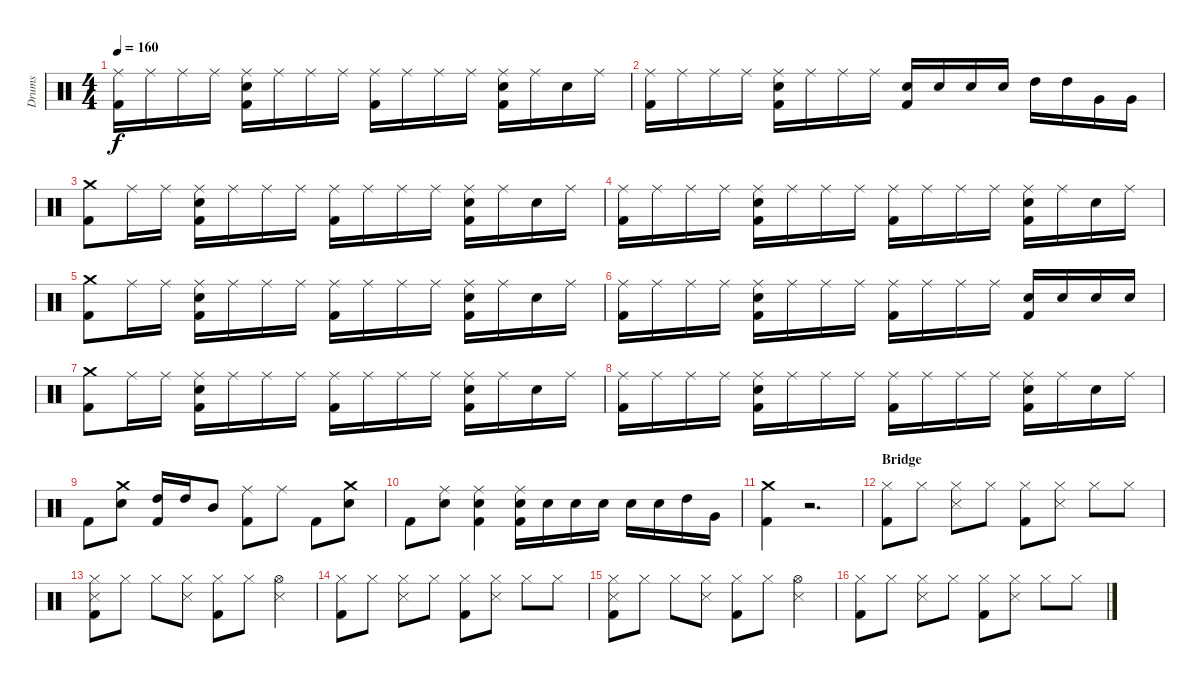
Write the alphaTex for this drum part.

\track ("Drums" "Drums") {instrument percussion}
\staff {score}
\articulation defaults
\ts (4 4)
\tempo 160
\clef neutral
\ks c
("Ride (middle)" "Kick (hit) 2").16{dy f} "Ride (middle)".16 "Ride (middle)".16 "Ride (middle)".16 ("Ride (middle)" "Snare (hit) 2" "Kick (hit) 2").16 "Ride (middle)".16 "Ride (middle)".16 "Ride (middle)".16 ("Ride (middle)" "Kick (hit) 2").16 "Ride (middle)".16 "Ride (middle)".16 "Ride (middle)".16 ("Ride (middle)" "Snare (hit) 2" "Kick (hit) 2").16 "Ride (middle)".16 "Snare (hit)".16 "Ride (middle)".16 |
("Ride (middle)" "Kick (hit) 2").16 "Ride (middle)".16 "Ride (middle)".16 "Ride (middle)".16 ("Ride (middle)" "Snare (hit) 2" "Kick (hit) 2").16 "Ride (middle)".16 "Ride (middle)".16 "Ride (middle)".16 ("Snare (hit) 2" "Kick (hit) 2").16 "Snare (hit) 2".16 "Snare (hit) 2".16 "Snare (hit) 2".16 "High Tom (hit)".16 "High Tom (hit)".16 "Very Low Tom (hit)".16 "Very Low Tom (hit)".16 |
("Crash medium (hit)" "Kick (hit) 2").8 "Ride (middle)".16 "Ride (middle)".16 ("Ride (middle)" "Snare (hit) 2" "Kick (hit) 2").16 "Ride (middle)".16 "Ride (middle)".16 "Ride (middle)".16 ("Ride (middle)" "Kick (hit) 2").16 "Ride (middle)".16 "Ride (middle)".16 "Ride (middle)".16 ("Ride (middle)" "Snare (hit) 2" "Kick (hit) 2").16 "Ride (middle)".16 "Snare (hit)".16 "Ride (middle)".16 |
("Ride (middle)" "Kick (hit) 2").16 "Ride (middle)".16 "Ride (middle)".16 "Ride (middle)".16 ("Ride (middle)" "Snare (hit) 2" "Kick (hit) 2").16 "Ride (middle)".16 "Ride (middle)".16 "Ride (middle)".16 ("Ride (middle)" "Kick (hit) 2").16 "Ride (middle)".16 "Ride (middle)".16 "Ride (middle)".16 ("Ride (middle)" "Snare (hit) 2" "Kick (hit) 2").16 "Ride (middle)".16 "Snare (hit)".16 "Ride (middle)".16 |
("Crash medium (hit)" "Kick (hit) 2").8 "Ride (middle)".16 "Ride (middle)".16 ("Ride (middle)" "Snare (hit) 2" "Kick (hit) 2").16 "Ride (middle)".16 "Ride (middle)".16 "Ride (middle)".16 ("Ride (middle)" "Kick (hit) 2").16 "Ride (middle)".16 "Ride (middle)".16 "Ride (middle)".16 ("Ride (middle)" "Snare (hit) 2" "Kick (hit) 2").16 "Ride (middle)".16 "Snare (hit)".16 "Ride (middle)".16 |
("Ride (middle)" "Kick (hit) 2").16 "Ride (middle)".16 "Ride (middle)".16 "Ride (middle)".16 ("Ride (middle)" "Snare (hit) 2" "Kick (hit) 2").16 "Ride (middle)".16 "Ride (middle)".16 "Ride (middle)".16 ("Ride (middle)" "Kick (hit) 2").16 "Ride (middle)".16 "Ride (middle)".16 "Ride (middle)".16 ("Snare (hit) 2" "Kick (hit) 2").16 "Snare (hit) 2".16 "Snare (hit) 2".16 "Snare (hit) 2".16 |
("Crash medium (hit)" "Kick (hit) 2").8 "Ride (middle)".16 "Ride (middle)".16 ("Ride (middle)" "Snare (hit) 2" "Kick (hit) 2").16 "Ride (middle)".16 "Ride (middle)".16 "Ride (middle)".16 ("Ride (middle)" "Kick (hit) 2").16 "Ride (middle)".16 "Ride (middle)".16 "Ride (middle)".16 ("Ride (middle)" "Snare (hit) 2" "Kick (hit) 2").16 "Ride (middle)".16 "Snare (hit)".16 "Ride (middle)".16 |
("Ride (middle)" "Kick (hit) 2").16 "Ride (middle)".16 "Ride (middle)".16 "Ride (middle)".16 ("Ride (middle)" "Snare (hit) 2" "Kick (hit) 2").16 "Ride (middle)".16 "Ride (middle)".16 "Ride (middle)".16 ("Ride (middle)" "Kick (hit) 2").16 "Ride (middle)".16 "Ride (middle)".16 "Ride (middle)".16 ("Ride (middle)" "Snare (hit) 2" "Kick (hit) 2").16 "Ride (middle)".16 "Snare (hit)".16 "Ride (middle)".16 |
"Kick (hit) 2".8 ("Crash medium (hit)" "Snare (hit) 2").8 ("High Tom (hit)" "Kick (hit) 2").16 "High Tom (hit)".16 "Mid Tom (hit)".8 ("Ride (middle)" "Kick (hit) 2").8 "Ride (middle)".8 "Kick (hit) 2".8 ("Crash medium (hit)" "Snare (hit) 2").8 |
"Kick (hit) 2".8 ("Ride (middle)" "Snare (hit) 2").8 ("Ride (middle)" "Snare (hit) 2" "Kick (hit) 2").4 ("Ride (middle)" "Snare (hit) 2" "Kick (hit) 2").16 "Snare (hit) 2".16 "Snare (hit) 2".16 "Snare (hit) 2".16 "Snare (hit) 2".16 "Snare (hit) 2".16 "High Tom (hit)".16 "Very Low Tom (hit)".16 |
("Crash medium (hit)" "Kick (hit) 2").4 r.2{d} |
\section ("" "Bridge")
("Hi-Hat (closed)" "Kick (hit) 2").8 "Hi-Hat (closed)".8 ("Hi-Hat (closed)" "Snare (side stick) 3").8 "Hi-Hat (closed)".8 ("Hi-Hat (closed)" "Kick (hit) 2").8 ("Hi-Hat (closed)" "Snare (side stick) 3").8 "Hi-Hat (closed)".8 "Hi-Hat (closed)".8 |
("Hi-Hat (closed)" "Snare (side stick) 3" "Kick (hit) 2").8 "Hi-Hat (closed)".8 "Hi-Hat (closed)".8 ("Hi-Hat (closed)" "Snare (side stick) 3").8 ("Hi-Hat (closed)" "Kick (hit) 2").8 "Hi-Hat (closed)".8 ("Hi-Hat (open)" "Snare (side stick) 3").4 |
("Hi-Hat (closed)" "Kick (hit) 2").8 "Hi-Hat (closed)".8 ("Hi-Hat (closed)" "Snare (side stick) 3").8 "Hi-Hat (closed)".8 ("Hi-Hat (closed)" "Kick (hit) 2").8 ("Hi-Hat (closed)" "Snare (side stick) 3").8 "Hi-Hat (closed)".8 "Hi-Hat (closed)".8 |
("Hi-Hat (closed)" "Snare (side stick) 3" "Kick (hit) 2").8 "Hi-Hat (closed)".8 "Hi-Hat (closed)".8 ("Hi-Hat (closed)" "Snare (side stick) 3").8 ("Hi-Hat (closed)" "Kick (hit) 2").8 "Hi-Hat (closed)".8 ("Hi-Hat (open)" "Snare (side stick) 3").4 |
("Hi-Hat (closed)" "Kick (hit) 2").8 "Hi-Hat (closed)".8 ("Hi-Hat (closed)" "Snare (side stick) 3").8 "Hi-Hat (closed)".8 ("Hi-Hat (closed)" "Kick (hit) 2").8 ("Hi-Hat (closed)" "Snare (side stick) 3").8 "Hi-Hat (closed)".8 "Hi-Hat (closed)".8
